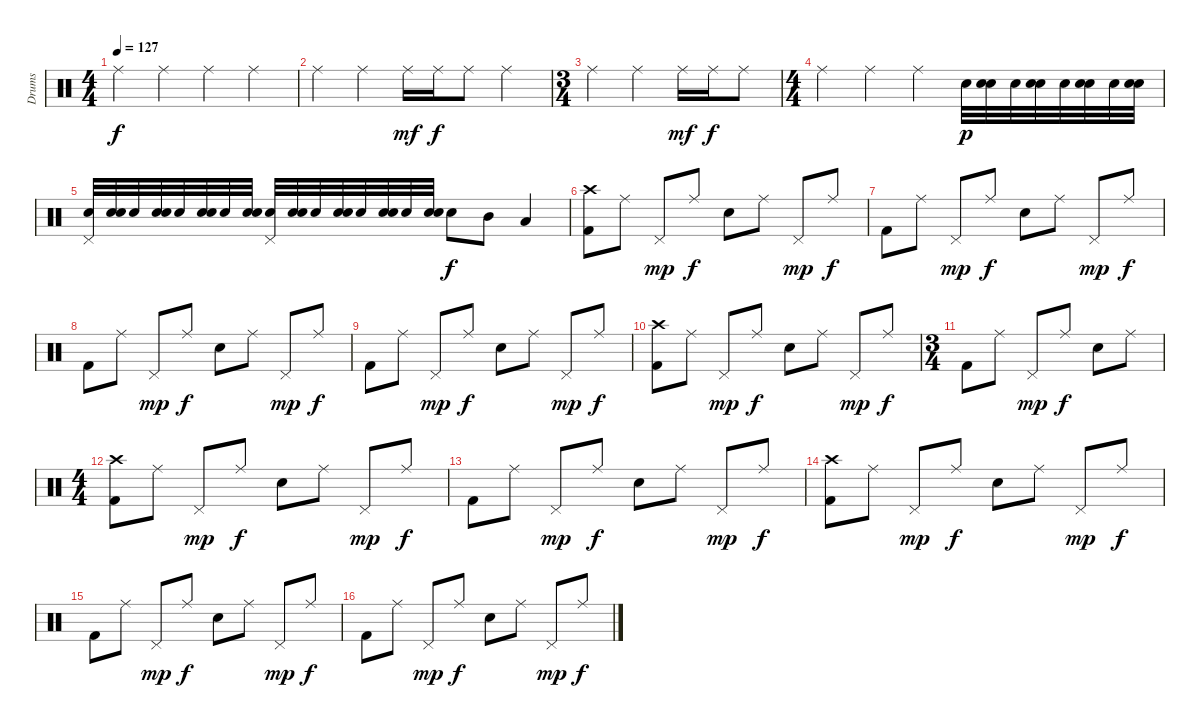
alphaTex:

\track ("Drums" "Drums") {instrument percussion}
\staff {score}
\articulation defaults
\ts (4 4)
\tempo 127
\clef neutral
\ks c "Ride (middle)".4{dy f} "Ride (middle)".4 "Ride (middle)".4 "Ride (middle)".4
|
"Ride (middle)".4 "Ride (middle)".4 "Ride (middle)".16{dy mf} "Ride (middle)".16{dy f} "Ride (middle)".8 "Ride (middle)".4 |
\ts (3 4)
"Ride (middle)".4 "Ride (middle)".4 "Ride (middle)".16{dy mf} "Ride (middle)".16{dy f} "Ride (middle)".8 |
\ts (4 4)
"Ride (middle)".4 "Ride (middle)".4 "Ride (middle)".4 "Electric Snare (hit)".32{dy p} ("Electric Snare (hit)" "Electric Snare (hit)").32 "Electric Snare (hit)".32 ("Electric Snare (hit)" "Electric Snare (hit)").32 "Electric Snare (hit)".32 ("Electric Snare (hit)" "Electric Snare (hit)").32 "Electric Snare (hit)".32 ("Electric Snare (hit)" "Electric Snare (hit)").32 |
("Electric Snare (hit)" "Pedal Hi-Hat (hit)").32 ("Electric Snare (hit)" "Electric Snare (hit)").32 "Electric Snare (hit)".32 ("Electric Snare (hit)" "Electric Snare (hit)").32 "Electric Snare (hit)".32 ("Electric Snare (hit)" "Electric Snare (hit)").32 "Electric Snare (hit)".32 ("Electric Snare (hit)" "Electric Snare (hit)").32 ("Electric Snare (hit)" "Pedal Hi-Hat (hit)").32 ("Electric Snare (hit)" "Electric Snare (hit)").32 "Electric Snare (hit)".32 ("Electric Snare (hit)" "Electric Snare (hit)").32 "Electric Snare (hit)".32 ("Electric Snare (hit)" "Electric Snare (hit)").32 "Electric Snare (hit)".32 ("Electric Snare (hit)" "Electric Snare (hit)").32 "Electric Snare (hit)".8{dy f} "Mid Tom (hit)".8 "Low Tom (hit)".4 |
("Crash high (hit)" "Kick (hit) 2").8 "Ride (middle)".8 "Pedal Hi-Hat (hit)".8{dy mp} "Ride (middle)".8{dy f} "Electric Snare (hit)".8 "Ride (middle)".8 "Pedal Hi-Hat (hit)".8{dy mp} "Ride (middle)".8{dy f} |
"Kick (hit) 2".8 "Ride (middle)".8 "Pedal Hi-Hat (hit)".8{dy mp} "Ride (middle)".8{dy f} "Electric Snare (hit)".8 "Ride (middle)".8 "Pedal Hi-Hat (hit)".8{dy mp} "Ride (middle)".8{dy f} |
"Kick (hit) 2".8 "Ride (middle)".8 "Pedal Hi-Hat (hit)".8{dy mp} "Ride (middle)".8{dy f} "Electric Snare (hit)".8 "Ride (middle)".8 "Pedal Hi-Hat (hit)".8{dy mp} "Ride (middle)".8{dy f} |
"Kick (hit) 2".8 "Ride (middle)".8 "Pedal Hi-Hat (hit)".8{dy mp} "Ride (middle)".8{dy f} "Electric Snare (hit)".8 "Ride (middle)".8 "Pedal Hi-Hat (hit)".8{dy mp} "Ride (middle)".8{dy f} |
("Kick (hit) 2" "Crash high (hit)").8 "Ride (middle)".8 "Pedal Hi-Hat (hit)".8{dy mp} "Ride (middle)".8{dy f} "Electric Snare (hit)".8 "Ride (middle)".8 "Pedal Hi-Hat (hit)".8{dy mp} "Ride (middle)".8{dy f} |
\ts (3 4)
"Kick (hit) 2".8 "Ride (middle)".8 "Pedal Hi-Hat (hit)".8{dy mp} "Ride (middle)".8{dy f} "Electric Snare (hit)".8 "Ride (middle)".8 |
\ts (4 4)
("Crash high (hit)" "Kick (hit) 2").8 "Ride (middle)".8 "Pedal Hi-Hat (hit)".8{dy mp} "Ride (middle)".8{dy f} "Electric Snare (hit)".8 "Ride (middle)".8 "Pedal Hi-Hat (hit)".8{dy mp} "Ride (middle)".8{dy f} |
"Kick (hit) 2".8 "Ride (middle)".8 "Pedal Hi-Hat (hit)".8{dy mp} "Ride (middle)".8{dy f} "Electric Snare (hit)".8 "Ride (middle)".8 "Pedal Hi-Hat (hit)".8{dy mp} "Ride (middle)".8{dy f} |
("Kick (hit) 2" "Crash high (hit)").8 "Ride (middle)".8 "Pedal Hi-Hat (hit)".8{dy mp} "Ride (middle)".8{dy f} "Electric Snare (hit)".8 "Ride (middle)".8 "Pedal Hi-Hat (hit)".8{dy mp} "Ride (middle)".8{dy f} |
"Kick (hit) 2".8 "Ride (middle)".8 "Pedal Hi-Hat (hit)".8{dy mp} "Ride (middle)".8{dy f} "Electric Snare (hit)".8 "Ride (middle)".8 "Pedal Hi-Hat (hit)".8{dy mp} "Ride (middle)".8{dy f} |
"Kick (hit) 2".8 "Ride (middle)".8 "Pedal Hi-Hat (hit)".8{dy mp} "Ride (middle)".8{dy f} "Electric Snare (hit)".8 "Ride (middle)".8 "Pedal Hi-Hat (hit)".8{dy mp} "Ride (middle)".8{dy f}
